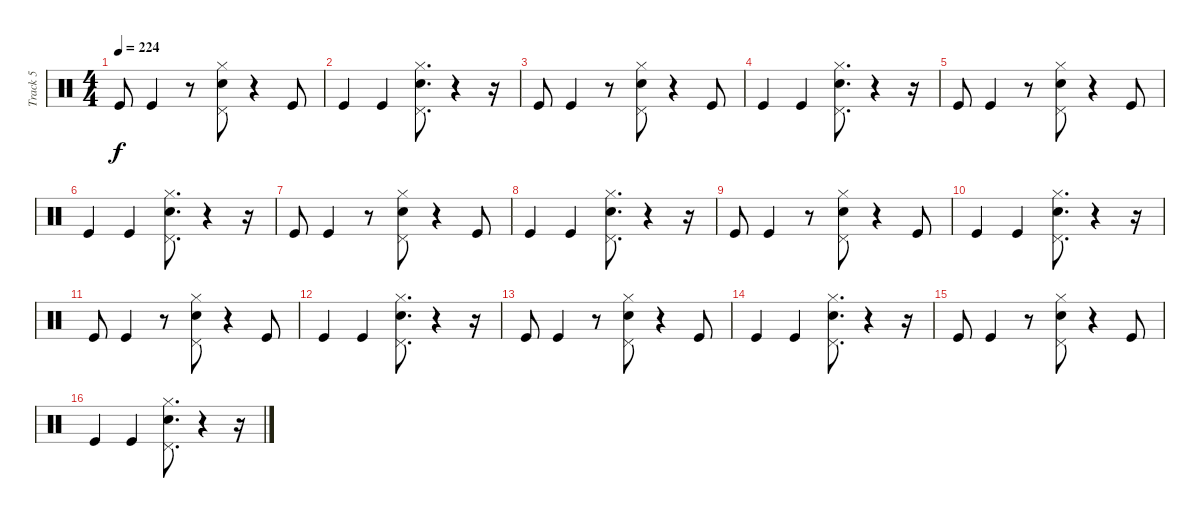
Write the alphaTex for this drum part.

\track ("Track 5" "Track 5") {instrument percussion}
\staff {score}
\articulation defaults
\ts (4 4)
\tempo 224
\clef neutral
\ks c "Kick (hit)".8{dy f} "Kick (hit)".4
r.8 ("Hi-Hat (closed)" "Pedal Hi-Hat (hit)" "Electric Snare (hit)").8 r.4 "Kick (hit)".8 |
"Kick (hit)".4 "Kick (hit)".4 ("Hi-Hat (closed)" "Pedal Hi-Hat (hit)" "Electric Snare (hit)").8{d} r.4 r.16 |
"Kick (hit)".8 "Kick (hit)".4 r.8 ("Hi-Hat (closed)" "Pedal Hi-Hat (hit)" "Electric Snare (hit)").8 r.4 "Kick (hit)".8 |
"Kick (hit)".4 "Kick (hit)".4 ("Hi-Hat (closed)" "Pedal Hi-Hat (hit)" "Electric Snare (hit)").8{d} r.4 r.16 |
"Kick (hit)".8 "Kick (hit)".4 r.8 ("Hi-Hat (closed)" "Pedal Hi-Hat (hit)" "Electric Snare (hit)").8 r.4 "Kick (hit)".8 |
"Kick (hit)".4 "Kick (hit)".4 ("Hi-Hat (closed)" "Pedal Hi-Hat (hit)" "Electric Snare (hit)").8{d} r.4 r.16 |
"Kick (hit)".8 "Kick (hit)".4 r.8 ("Hi-Hat (closed)" "Pedal Hi-Hat (hit)" "Electric Snare (hit)").8 r.4 "Kick (hit)".8 |
"Kick (hit)".4 "Kick (hit)".4 ("Hi-Hat (closed)" "Pedal Hi-Hat (hit)" "Electric Snare (hit)").8{d} r.4 r.16 |
"Kick (hit)".8 "Kick (hit)".4 r.8 ("Hi-Hat (closed)" "Pedal Hi-Hat (hit)" "Electric Snare (hit)").8 r.4 "Kick (hit)".8 |
"Kick (hit)".4 "Kick (hit)".4 ("Hi-Hat (closed)" "Pedal Hi-Hat (hit)" "Electric Snare (hit)").8{d} r.4 r.16 |
"Kick (hit)".8 "Kick (hit)".4 r.8 ("Hi-Hat (closed)" "Pedal Hi-Hat (hit)" "Electric Snare (hit)").8 r.4 "Kick (hit)".8 |
"Kick (hit)".4 "Kick (hit)".4 ("Hi-Hat (closed)" "Pedal Hi-Hat (hit)" "Electric Snare (hit)").8{d} r.4 r.16 |
"Kick (hit)".8 "Kick (hit)".4 r.8 ("Hi-Hat (closed)" "Pedal Hi-Hat (hit)" "Electric Snare (hit)").8 r.4 "Kick (hit)".8 |
"Kick (hit)".4 "Kick (hit)".4 ("Hi-Hat (closed)" "Pedal Hi-Hat (hit)" "Electric Snare (hit)").8{d} r.4 r.16 |
"Kick (hit)".8 "Kick (hit)".4 r.8 ("Hi-Hat (closed)" "Pedal Hi-Hat (hit)" "Electric Snare (hit)").8 r.4 "Kick (hit)".8 |
"Kick (hit)".4 "Kick (hit)".4 ("Hi-Hat (closed)" "Pedal Hi-Hat (hit)" "Electric Snare (hit)").8{d} r.4 r.16
